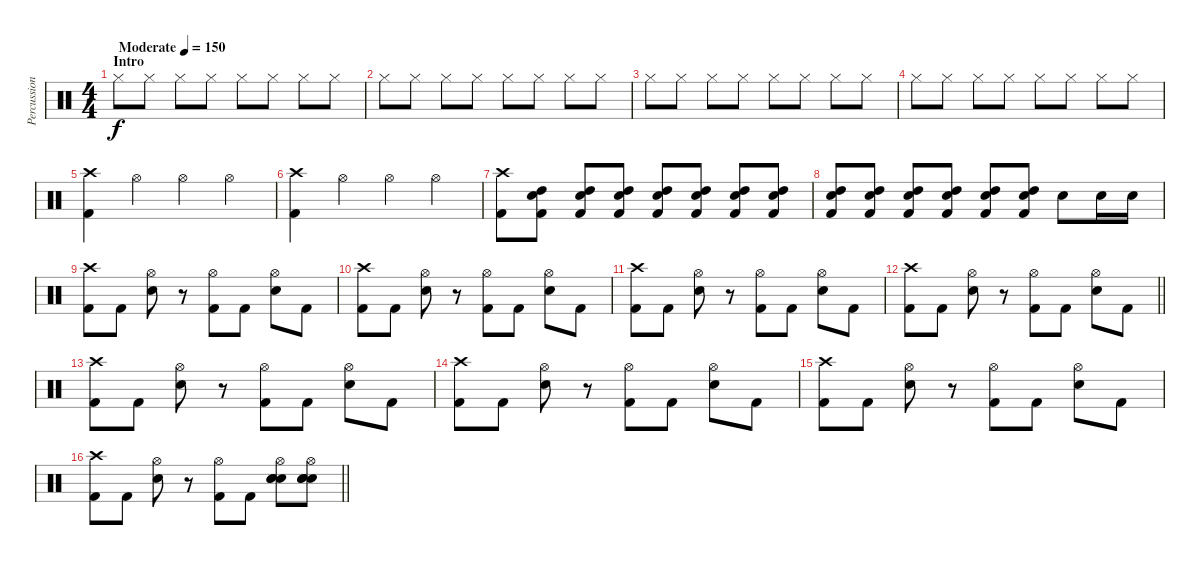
\track ("Percussion" "Percussion") {instrument percussion}
\staff {score}
\articulation defaults
\ts (4 4)
\section ("" "Intro")
\tempo (150 "Moderate")
\clef neutral
\ks c "Hi-Hat (closed)".8{dy f} "Hi-Hat (closed)".8 "Hi-Hat (closed)".8 "Hi-Hat (closed)".8 "Hi-Hat (closed)".8 "Hi-Hat (closed)".8 "Hi-Hat (closed)".8 "Hi-Hat (closed)".8
|
"Hi-Hat (closed)".8 "Hi-Hat (closed)".8 "Hi-Hat (closed)".8 "Hi-Hat (closed)".8 "Hi-Hat (closed)".8 "Hi-Hat (closed)".8 "Hi-Hat (closed)".8 "Hi-Hat (closed)".8 |
"Hi-Hat (closed)".8 "Hi-Hat (closed)".8 "Hi-Hat (closed)".8 "Hi-Hat (closed)".8 "Hi-Hat (closed)".8 "Hi-Hat (closed)".8 "Hi-Hat (closed)".8 "Hi-Hat (closed)".8 |
"Hi-Hat (closed)".8 "Hi-Hat (closed)".8 "Hi-Hat (closed)".8 "Hi-Hat (closed)".8 "Hi-Hat (closed)".8 "Hi-Hat (closed)".8 "Hi-Hat (closed)".8 "Hi-Hat (closed)".8 |
("Crash high (hit)" "Kick (hit) 2").4 "Hi-Hat (open)".4 "Hi-Hat (open)".4 "Hi-Hat (open)".4 |
("Crash high (hit)" "Kick (hit) 2").4 "Hi-Hat (open)".4 "Hi-Hat (open)".4 "Hi-Hat (open)".4 |
("Crash high (hit)" "Kick (hit) 2").8 ("Electric Snare (hit)" "High Tom (hit)" "Kick (hit) 2").8 ("Electric Snare (hit)" "High Tom (hit)" "Kick (hit) 2").8 ("Electric Snare (hit)" "High Tom (hit)" "Kick (hit) 2").8 ("Electric Snare (hit)" "High Tom (hit)" "Kick (hit) 2").8 ("Electric Snare (hit)" "High Tom (hit)" "Kick (hit) 2").8 ("Electric Snare (hit)" "High Tom (hit)" "Kick (hit) 2").8 ("Electric Snare (hit)" "High Tom (hit)" "Kick (hit) 2").8 |
("Electric Snare (hit)" "High Tom (hit)" "Kick (hit) 2").8 ("Electric Snare (hit)" "High Tom (hit)" "Kick (hit) 2").8 ("Electric Snare (hit)" "High Tom (hit)" "Kick (hit) 2").8 ("Electric Snare (hit)" "High Tom (hit)" "Kick (hit) 2").8 ("Electric Snare (hit)" "High Tom (hit)" "Kick (hit) 2").8 ("Electric Snare (hit)" "High Tom (hit)" "Kick (hit) 2").8 "Electric Snare (hit)".8 "Electric Snare (hit)".16 "Electric Snare (hit)".16 |
("Crash high (hit)" "Kick (hit) 2").8 "Kick (hit) 2".8 ("Hi-Hat (open)" "Electric Snare (hit)").8 r.8 ("Hi-Hat (open)" "Kick (hit) 2").8 "Kick (hit) 2".8 ("Hi-Hat (open)" "Electric Snare (hit)").8 "Kick (hit) 2".8 |
("Crash high (hit)" "Kick (hit) 2").8 "Kick (hit) 2".8 ("Hi-Hat (open)" "Electric Snare (hit)").8 r.8 ("Hi-Hat (open)" "Kick (hit) 2").8 "Kick (hit) 2".8 ("Hi-Hat (open)" "Electric Snare (hit)").8 "Kick (hit) 2".8 |
("Crash high (hit)" "Kick (hit) 2").8 "Kick (hit) 2".8 ("Hi-Hat (open)" "Electric Snare (hit)").8 r.8 ("Hi-Hat (open)" "Kick (hit) 2").8 "Kick (hit) 2".8 ("Hi-Hat (open)" "Electric Snare (hit)").8 "Kick (hit) 2".8 |
\barLineRight lightlight
("Crash high (hit)" "Kick (hit) 2").8 "Kick (hit) 2".8 ("Hi-Hat (open)" "Electric Snare (hit)").8 r.8 ("Hi-Hat (open)" "Kick (hit) 2").8 "Kick (hit) 2".8 ("Hi-Hat (open)" "Electric Snare (hit)").8 "Kick (hit) 2".8 |
("Crash high (hit)" "Kick (hit) 2").8 "Kick (hit) 2".8 ("Hi-Hat (open)" "Electric Snare (hit)").8 r.8 ("Hi-Hat (open)" "Kick (hit) 2").8 "Kick (hit) 2".8 ("Hi-Hat (open)" "Electric Snare (hit)").8 "Kick (hit) 2".8 |
("Crash high (hit)" "Kick (hit) 2").8 "Kick (hit) 2".8 ("Hi-Hat (open)" "Electric Snare (hit)").8 r.8 ("Hi-Hat (open)" "Kick (hit) 2").8 "Kick (hit) 2".8 ("Hi-Hat (open)" "Electric Snare (hit)").8 "Kick (hit) 2".8 |
("Crash high (hit)" "Kick (hit) 2").8 "Kick (hit) 2".8 ("Hi-Hat (open)" "Electric Snare (hit)").8 r.8 ("Hi-Hat (open)" "Kick (hit) 2").8 "Kick (hit) 2".8 ("Hi-Hat (open)" "Electric Snare (hit)").8 "Kick (hit) 2".8 |
\barLineRight lightlight
("Crash high (hit)" "Kick (hit) 2").8 "Kick (hit) 2".8 ("Hi-Hat (open)" "Electric Snare (hit)").8 r.8 ("Hi-Hat (open)" "Kick (hit) 2").8 "Kick (hit) 2".8 ("Hi-Hat (open)" "Snare (hit) 2" "Electric Snare (hit)" "Electric Snare (hit)").8 ("Hi-Hat (open)" "Snare (hit) 2" "Electric Snare (hit)" "Electric Snare (hit)").8
